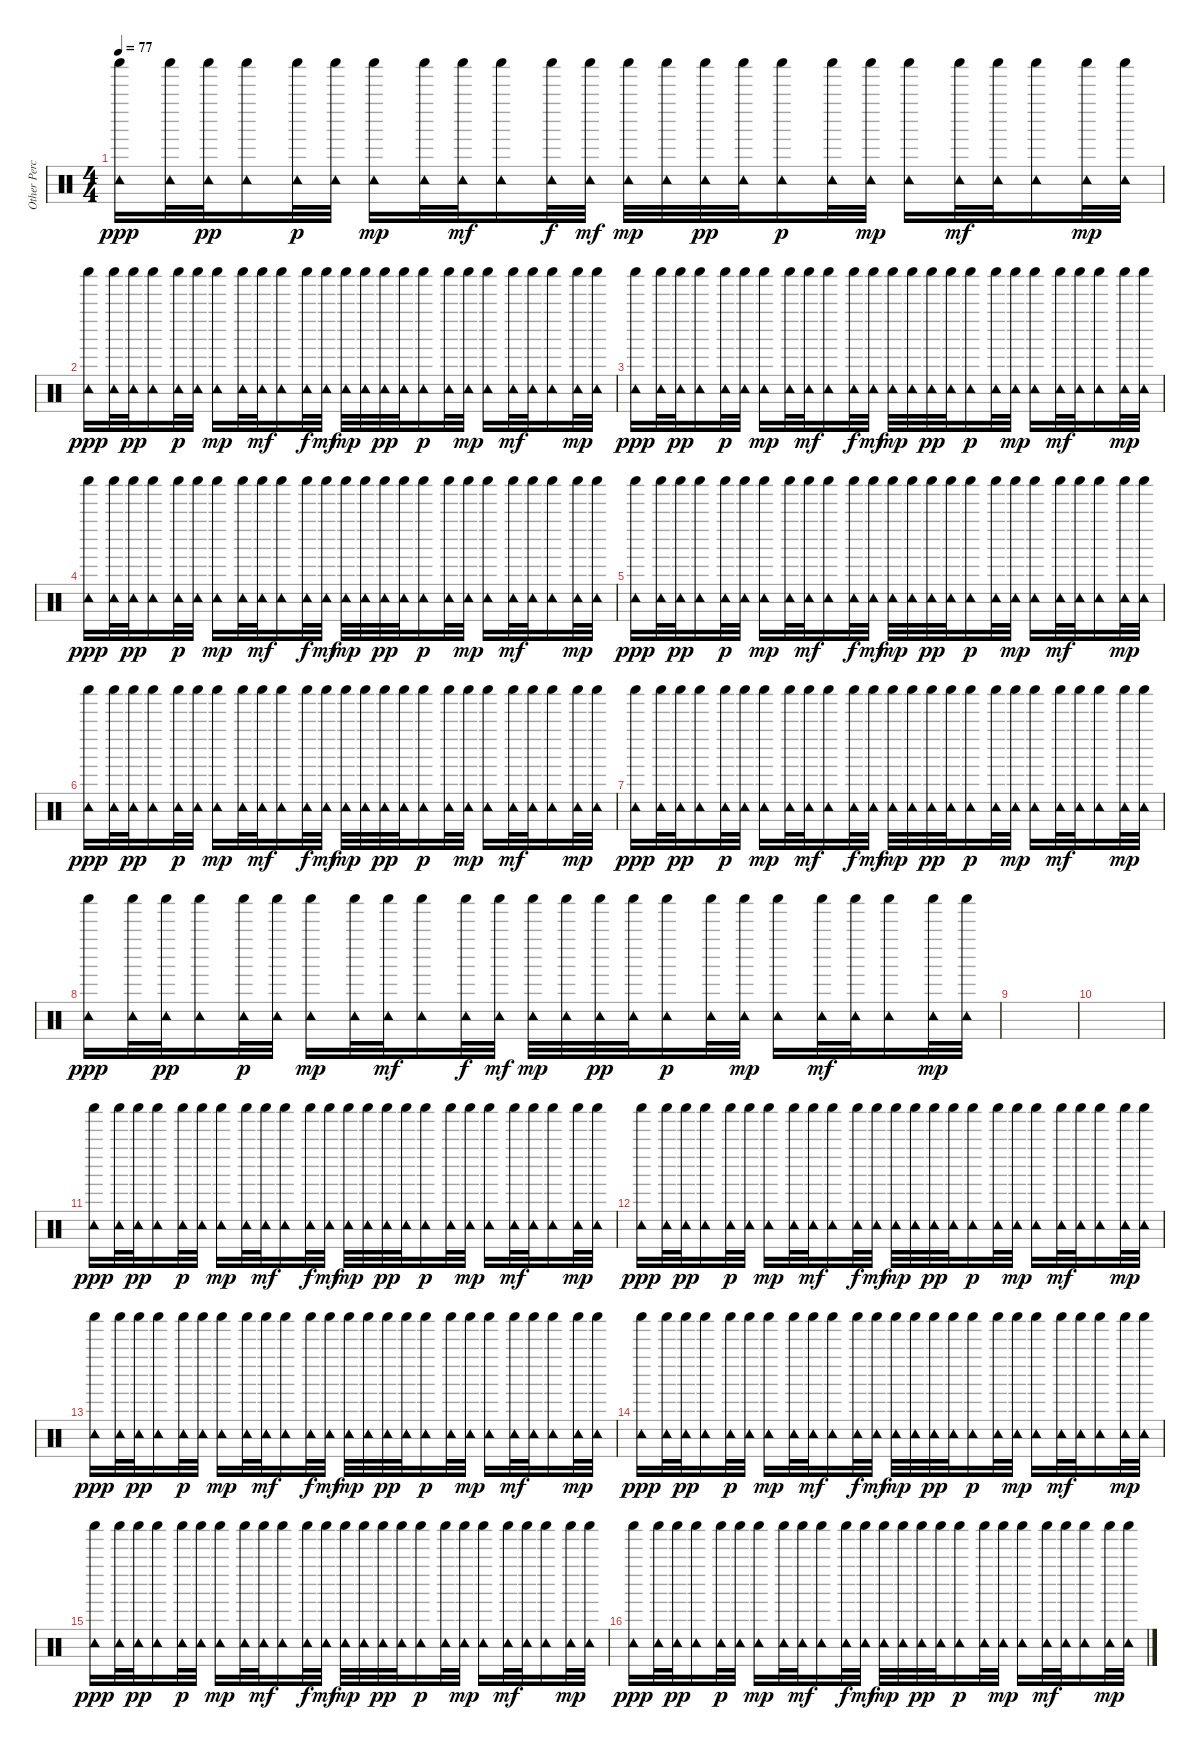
\track ("Other Percussion" "Other Perc") {instrument percussion}
\staff {score}
\articulation defaults
\ts (4 4)
\tempo 77
\clef neutral
\ks c
("Shaker (hit)" "Tambourine (hit)").16{dy ppp} ("Shaker (hit)" "Tambourine (hit)").32 ("Shaker (hit)" "Tambourine (hit)").32{dy pp} ("Shaker (hit)" "Tambourine (hit)").16 ("Shaker (hit)" "Tambourine (hit)").32{dy p} ("Shaker (hit)" "Tambourine (hit)").32 ("Shaker (hit)" "Tambourine (hit)").16{dy mp} ("Shaker (hit)" "Tambourine (hit)").32 ("Shaker (hit)" "Tambourine (hit)").32{dy mf} ("Shaker (hit)" "Tambourine (hit)").16 ("Shaker (hit)" "Tambourine (hit)").32{dy f} ("Shaker (hit)" "Tambourine (hit)").32{dy mf} ("Shaker (hit)" "Tambourine (hit)").32{dy mp} ("Shaker (hit)" "Tambourine (hit)").32 ("Shaker (hit)" "Tambourine (hit)").32{dy pp} ("Shaker (hit)" "Tambourine (hit)").32 ("Shaker (hit)" "Tambourine (hit)").16{dy p} ("Shaker (hit)" "Tambourine (hit)").32 ("Shaker (hit)" "Tambourine (hit)").32{dy mp} ("Shaker (hit)" "Tambourine (hit)").16 ("Shaker (hit)" "Tambourine (hit)").32{dy mf} ("Shaker (hit)" "Tambourine (hit)").32 ("Shaker (hit)" "Tambourine (hit)").16 ("Shaker (hit)" "Tambourine (hit)").32{dy mp} ("Shaker (hit)" "Tambourine (hit)").32 |
("Shaker (hit)" "Tambourine (hit)").16{dy ppp} ("Shaker (hit)" "Tambourine (hit)").32 ("Shaker (hit)" "Tambourine (hit)").32{dy pp} ("Shaker (hit)" "Tambourine (hit)").16 ("Shaker (hit)" "Tambourine (hit)").32{dy p} ("Shaker (hit)" "Tambourine (hit)").32 ("Shaker (hit)" "Tambourine (hit)").16{dy mp} ("Shaker (hit)" "Tambourine (hit)").32 ("Shaker (hit)" "Tambourine (hit)").32{dy mf} ("Shaker (hit)" "Tambourine (hit)").16 ("Shaker (hit)" "Tambourine (hit)").32{dy f} ("Shaker (hit)" "Tambourine (hit)").32{dy mf} ("Shaker (hit)" "Tambourine (hit)").32{dy mp} ("Shaker (hit)" "Tambourine (hit)").32 ("Shaker (hit)" "Tambourine (hit)").32{dy pp} ("Shaker (hit)" "Tambourine (hit)").32 ("Shaker (hit)" "Tambourine (hit)").16{dy p} ("Shaker (hit)" "Tambourine (hit)").32 ("Shaker (hit)" "Tambourine (hit)").32{dy mp} ("Shaker (hit)" "Tambourine (hit)").16 ("Shaker (hit)" "Tambourine (hit)").32{dy mf} ("Shaker (hit)" "Tambourine (hit)").32 ("Shaker (hit)" "Tambourine (hit)").16 ("Shaker (hit)" "Tambourine (hit)").32{dy mp} ("Shaker (hit)" "Tambourine (hit)").32 |
("Shaker (hit)" "Tambourine (hit)").16{dy ppp} ("Shaker (hit)" "Tambourine (hit)").32 ("Shaker (hit)" "Tambourine (hit)").32{dy pp} ("Shaker (hit)" "Tambourine (hit)").16 ("Shaker (hit)" "Tambourine (hit)").32{dy p} ("Shaker (hit)" "Tambourine (hit)").32 ("Shaker (hit)" "Tambourine (hit)").16{dy mp} ("Shaker (hit)" "Tambourine (hit)").32 ("Shaker (hit)" "Tambourine (hit)").32{dy mf} ("Shaker (hit)" "Tambourine (hit)").16 ("Shaker (hit)" "Tambourine (hit)").32{dy f} ("Shaker (hit)" "Tambourine (hit)").32{dy mf} ("Shaker (hit)" "Tambourine (hit)").32{dy mp} ("Shaker (hit)" "Tambourine (hit)").32 ("Shaker (hit)" "Tambourine (hit)").32{dy pp} ("Shaker (hit)" "Tambourine (hit)").32 ("Shaker (hit)" "Tambourine (hit)").16{dy p} ("Shaker (hit)" "Tambourine (hit)").32 ("Shaker (hit)" "Tambourine (hit)").32{dy mp} ("Shaker (hit)" "Tambourine (hit)").16 ("Shaker (hit)" "Tambourine (hit)").32{dy mf} ("Shaker (hit)" "Tambourine (hit)").32 ("Shaker (hit)" "Tambourine (hit)").16 ("Shaker (hit)" "Tambourine (hit)").32{dy mp} ("Shaker (hit)" "Tambourine (hit)").32 |
("Shaker (hit)" "Tambourine (hit)").16{dy ppp} ("Shaker (hit)" "Tambourine (hit)").32 ("Shaker (hit)" "Tambourine (hit)").32{dy pp} ("Shaker (hit)" "Tambourine (hit)").16 ("Shaker (hit)" "Tambourine (hit)").32{dy p} ("Shaker (hit)" "Tambourine (hit)").32 ("Shaker (hit)" "Tambourine (hit)").16{dy mp} ("Shaker (hit)" "Tambourine (hit)").32 ("Shaker (hit)" "Tambourine (hit)").32{dy mf} ("Shaker (hit)" "Tambourine (hit)").16 ("Shaker (hit)" "Tambourine (hit)").32{dy f} ("Shaker (hit)" "Tambourine (hit)").32{dy mf} ("Shaker (hit)" "Tambourine (hit)").32{dy mp} ("Shaker (hit)" "Tambourine (hit)").32 ("Shaker (hit)" "Tambourine (hit)").32{dy pp} ("Shaker (hit)" "Tambourine (hit)").32 ("Shaker (hit)" "Tambourine (hit)").16{dy p} ("Shaker (hit)" "Tambourine (hit)").32 ("Shaker (hit)" "Tambourine (hit)").32{dy mp} ("Shaker (hit)" "Tambourine (hit)").16 ("Shaker (hit)" "Tambourine (hit)").32{dy mf} ("Shaker (hit)" "Tambourine (hit)").32 ("Shaker (hit)" "Tambourine (hit)").16 ("Shaker (hit)" "Tambourine (hit)").32{dy mp} ("Shaker (hit)" "Tambourine (hit)").32 |
("Shaker (hit)" "Tambourine (hit)").16{dy ppp} ("Shaker (hit)" "Tambourine (hit)").32 ("Shaker (hit)" "Tambourine (hit)").32{dy pp} ("Shaker (hit)" "Tambourine (hit)").16 ("Shaker (hit)" "Tambourine (hit)").32{dy p} ("Shaker (hit)" "Tambourine (hit)").32 ("Shaker (hit)" "Tambourine (hit)").16{dy mp} ("Shaker (hit)" "Tambourine (hit)").32 ("Shaker (hit)" "Tambourine (hit)").32{dy mf} ("Shaker (hit)" "Tambourine (hit)").16 ("Shaker (hit)" "Tambourine (hit)").32{dy f} ("Shaker (hit)" "Tambourine (hit)").32{dy mf} ("Shaker (hit)" "Tambourine (hit)").32{dy mp} ("Shaker (hit)" "Tambourine (hit)").32 ("Shaker (hit)" "Tambourine (hit)").32{dy pp} ("Shaker (hit)" "Tambourine (hit)").32 ("Shaker (hit)" "Tambourine (hit)").16{dy p} ("Shaker (hit)" "Tambourine (hit)").32 ("Shaker (hit)" "Tambourine (hit)").32{dy mp} ("Shaker (hit)" "Tambourine (hit)").16 ("Shaker (hit)" "Tambourine (hit)").32{dy mf} ("Shaker (hit)" "Tambourine (hit)").32 ("Shaker (hit)" "Tambourine (hit)").16 ("Shaker (hit)" "Tambourine (hit)").32{dy mp} ("Shaker (hit)" "Tambourine (hit)").32 |
("Shaker (hit)" "Tambourine (hit)").16{dy ppp} ("Shaker (hit)" "Tambourine (hit)").32 ("Shaker (hit)" "Tambourine (hit)").32{dy pp} ("Shaker (hit)" "Tambourine (hit)").16 ("Shaker (hit)" "Tambourine (hit)").32{dy p} ("Shaker (hit)" "Tambourine (hit)").32 ("Shaker (hit)" "Tambourine (hit)").16{dy mp} ("Shaker (hit)" "Tambourine (hit)").32 ("Shaker (hit)" "Tambourine (hit)").32{dy mf} ("Shaker (hit)" "Tambourine (hit)").16 ("Shaker (hit)" "Tambourine (hit)").32{dy f} ("Shaker (hit)" "Tambourine (hit)").32{dy mf} ("Shaker (hit)" "Tambourine (hit)").32{dy mp} ("Shaker (hit)" "Tambourine (hit)").32 ("Shaker (hit)" "Tambourine (hit)").32{dy pp} ("Shaker (hit)" "Tambourine (hit)").32 ("Shaker (hit)" "Tambourine (hit)").16{dy p} ("Shaker (hit)" "Tambourine (hit)").32 ("Shaker (hit)" "Tambourine (hit)").32{dy mp} ("Shaker (hit)" "Tambourine (hit)").16 ("Shaker (hit)" "Tambourine (hit)").32{dy mf} ("Shaker (hit)" "Tambourine (hit)").32 ("Shaker (hit)" "Tambourine (hit)").16 ("Shaker (hit)" "Tambourine (hit)").32{dy mp} ("Shaker (hit)" "Tambourine (hit)").32 |
("Shaker (hit)" "Tambourine (hit)").16{dy ppp} ("Shaker (hit)" "Tambourine (hit)").32 ("Shaker (hit)" "Tambourine (hit)").32{dy pp} ("Shaker (hit)" "Tambourine (hit)").16 ("Shaker (hit)" "Tambourine (hit)").32{dy p} ("Shaker (hit)" "Tambourine (hit)").32 ("Shaker (hit)" "Tambourine (hit)").16{dy mp} ("Shaker (hit)" "Tambourine (hit)").32 ("Shaker (hit)" "Tambourine (hit)").32{dy mf} ("Shaker (hit)" "Tambourine (hit)").16 ("Shaker (hit)" "Tambourine (hit)").32{dy f} ("Shaker (hit)" "Tambourine (hit)").32{dy mf} ("Shaker (hit)" "Tambourine (hit)").32{dy mp} ("Shaker (hit)" "Tambourine (hit)").32 ("Shaker (hit)" "Tambourine (hit)").32{dy pp} ("Shaker (hit)" "Tambourine (hit)").32 ("Shaker (hit)" "Tambourine (hit)").16{dy p} ("Shaker (hit)" "Tambourine (hit)").32 ("Shaker (hit)" "Tambourine (hit)").32{dy mp} ("Shaker (hit)" "Tambourine (hit)").16 ("Shaker (hit)" "Tambourine (hit)").32{dy mf} ("Shaker (hit)" "Tambourine (hit)").32 ("Shaker (hit)" "Tambourine (hit)").16 ("Shaker (hit)" "Tambourine (hit)").32{dy mp} ("Shaker (hit)" "Tambourine (hit)").32 |
("Shaker (hit)" "Tambourine (hit)").16{dy ppp} ("Shaker (hit)" "Tambourine (hit)").32 ("Shaker (hit)" "Tambourine (hit)").32{dy pp} ("Shaker (hit)" "Tambourine (hit)").16 ("Shaker (hit)" "Tambourine (hit)").32{dy p} ("Shaker (hit)" "Tambourine (hit)").32 ("Shaker (hit)" "Tambourine (hit)").16{dy mp} ("Shaker (hit)" "Tambourine (hit)").32 ("Shaker (hit)" "Tambourine (hit)").32{dy mf} ("Shaker (hit)" "Tambourine (hit)").16 ("Shaker (hit)" "Tambourine (hit)").32{dy f} ("Shaker (hit)" "Tambourine (hit)").32{dy mf} ("Shaker (hit)" "Tambourine (hit)").32{dy mp} ("Shaker (hit)" "Tambourine (hit)").32 ("Shaker (hit)" "Tambourine (hit)").32{dy pp} ("Shaker (hit)" "Tambourine (hit)").32 ("Shaker (hit)" "Tambourine (hit)").16{dy p} ("Shaker (hit)" "Tambourine (hit)").32 ("Shaker (hit)" "Tambourine (hit)").32{dy mp} ("Shaker (hit)" "Tambourine (hit)").16 ("Shaker (hit)" "Tambourine (hit)").32{dy mf} ("Shaker (hit)" "Tambourine (hit)").32 ("Shaker (hit)" "Tambourine (hit)").16 ("Shaker (hit)" "Tambourine (hit)").32{dy mp} ("Shaker (hit)" "Tambourine (hit)").32 |
|
|
("Shaker (hit)" "Tambourine (hit)").16{dy ppp} ("Shaker (hit)" "Tambourine (hit)").32 ("Shaker (hit)" "Tambourine (hit)").32{dy pp} ("Shaker (hit)" "Tambourine (hit)").16 ("Shaker (hit)" "Tambourine (hit)").32{dy p} ("Shaker (hit)" "Tambourine (hit)").32 ("Shaker (hit)" "Tambourine (hit)").16{dy mp} ("Shaker (hit)" "Tambourine (hit)").32 ("Shaker (hit)" "Tambourine (hit)").32{dy mf} ("Shaker (hit)" "Tambourine (hit)").16 ("Shaker (hit)" "Tambourine (hit)").32{dy f} ("Shaker (hit)" "Tambourine (hit)").32{dy mf} ("Shaker (hit)" "Tambourine (hit)").32{dy mp} ("Shaker (hit)" "Tambourine (hit)").32 ("Shaker (hit)" "Tambourine (hit)").32{dy pp} ("Shaker (hit)" "Tambourine (hit)").32 ("Shaker (hit)" "Tambourine (hit)").16{dy p} ("Shaker (hit)" "Tambourine (hit)").32 ("Shaker (hit)" "Tambourine (hit)").32{dy mp} ("Shaker (hit)" "Tambourine (hit)").16 ("Shaker (hit)" "Tambourine (hit)").32{dy mf} ("Shaker (hit)" "Tambourine (hit)").32 ("Shaker (hit)" "Tambourine (hit)").16 ("Shaker (hit)" "Tambourine (hit)").32{dy mp} ("Shaker (hit)" "Tambourine (hit)").32 |
("Shaker (hit)" "Tambourine (hit)").16{dy ppp} ("Shaker (hit)" "Tambourine (hit)").32 ("Shaker (hit)" "Tambourine (hit)").32{dy pp} ("Shaker (hit)" "Tambourine (hit)").16 ("Shaker (hit)" "Tambourine (hit)").32{dy p} ("Shaker (hit)" "Tambourine (hit)").32 ("Shaker (hit)" "Tambourine (hit)").16{dy mp} ("Shaker (hit)" "Tambourine (hit)").32 ("Shaker (hit)" "Tambourine (hit)").32{dy mf} ("Shaker (hit)" "Tambourine (hit)").16 ("Shaker (hit)" "Tambourine (hit)").32{dy f} ("Shaker (hit)" "Tambourine (hit)").32{dy mf} ("Shaker (hit)" "Tambourine (hit)").32{dy mp} ("Shaker (hit)" "Tambourine (hit)").32 ("Shaker (hit)" "Tambourine (hit)").32{dy pp} ("Shaker (hit)" "Tambourine (hit)").32 ("Shaker (hit)" "Tambourine (hit)").16{dy p} ("Shaker (hit)" "Tambourine (hit)").32 ("Shaker (hit)" "Tambourine (hit)").32{dy mp} ("Shaker (hit)" "Tambourine (hit)").16 ("Shaker (hit)" "Tambourine (hit)").32{dy mf} ("Shaker (hit)" "Tambourine (hit)").32 ("Shaker (hit)" "Tambourine (hit)").16 ("Shaker (hit)" "Tambourine (hit)").32{dy mp} ("Shaker (hit)" "Tambourine (hit)").32 |
("Shaker (hit)" "Tambourine (hit)").16{dy ppp} ("Shaker (hit)" "Tambourine (hit)").32 ("Shaker (hit)" "Tambourine (hit)").32{dy pp} ("Shaker (hit)" "Tambourine (hit)").16 ("Shaker (hit)" "Tambourine (hit)").32{dy p} ("Shaker (hit)" "Tambourine (hit)").32 ("Shaker (hit)" "Tambourine (hit)").16{dy mp} ("Shaker (hit)" "Tambourine (hit)").32 ("Shaker (hit)" "Tambourine (hit)").32{dy mf} ("Shaker (hit)" "Tambourine (hit)").16 ("Shaker (hit)" "Tambourine (hit)").32{dy f} ("Shaker (hit)" "Tambourine (hit)").32{dy mf} ("Shaker (hit)" "Tambourine (hit)").32{dy mp} ("Shaker (hit)" "Tambourine (hit)").32 ("Shaker (hit)" "Tambourine (hit)").32{dy pp} ("Shaker (hit)" "Tambourine (hit)").32 ("Shaker (hit)" "Tambourine (hit)").16{dy p} ("Shaker (hit)" "Tambourine (hit)").32 ("Shaker (hit)" "Tambourine (hit)").32{dy mp} ("Shaker (hit)" "Tambourine (hit)").16 ("Shaker (hit)" "Tambourine (hit)").32{dy mf} ("Shaker (hit)" "Tambourine (hit)").32 ("Shaker (hit)" "Tambourine (hit)").16 ("Shaker (hit)" "Tambourine (hit)").32{dy mp} ("Shaker (hit)" "Tambourine (hit)").32 |
("Shaker (hit)" "Tambourine (hit)").16{dy ppp} ("Shaker (hit)" "Tambourine (hit)").32 ("Shaker (hit)" "Tambourine (hit)").32{dy pp} ("Shaker (hit)" "Tambourine (hit)").16 ("Shaker (hit)" "Tambourine (hit)").32{dy p} ("Shaker (hit)" "Tambourine (hit)").32 ("Shaker (hit)" "Tambourine (hit)").16{dy mp} ("Shaker (hit)" "Tambourine (hit)").32 ("Shaker (hit)" "Tambourine (hit)").32{dy mf} ("Shaker (hit)" "Tambourine (hit)").16 ("Shaker (hit)" "Tambourine (hit)").32{dy f} ("Shaker (hit)" "Tambourine (hit)").32{dy mf} ("Shaker (hit)" "Tambourine (hit)").32{dy mp} ("Shaker (hit)" "Tambourine (hit)").32 ("Shaker (hit)" "Tambourine (hit)").32{dy pp} ("Shaker (hit)" "Tambourine (hit)").32 ("Shaker (hit)" "Tambourine (hit)").16{dy p} ("Shaker (hit)" "Tambourine (hit)").32 ("Shaker (hit)" "Tambourine (hit)").32{dy mp} ("Shaker (hit)" "Tambourine (hit)").16 ("Shaker (hit)" "Tambourine (hit)").32{dy mf} ("Shaker (hit)" "Tambourine (hit)").32 ("Shaker (hit)" "Tambourine (hit)").16 ("Shaker (hit)" "Tambourine (hit)").32{dy mp} ("Shaker (hit)" "Tambourine (hit)").32 |
("Shaker (hit)" "Tambourine (hit)").16{dy ppp} ("Shaker (hit)" "Tambourine (hit)").32 ("Shaker (hit)" "Tambourine (hit)").32{dy pp} ("Shaker (hit)" "Tambourine (hit)").16 ("Shaker (hit)" "Tambourine (hit)").32{dy p} ("Shaker (hit)" "Tambourine (hit)").32 ("Shaker (hit)" "Tambourine (hit)").16{dy mp} ("Shaker (hit)" "Tambourine (hit)").32 ("Shaker (hit)" "Tambourine (hit)").32{dy mf} ("Shaker (hit)" "Tambourine (hit)").16 ("Shaker (hit)" "Tambourine (hit)").32{dy f} ("Shaker (hit)" "Tambourine (hit)").32{dy mf} ("Shaker (hit)" "Tambourine (hit)").32{dy mp} ("Shaker (hit)" "Tambourine (hit)").32 ("Shaker (hit)" "Tambourine (hit)").32{dy pp} ("Shaker (hit)" "Tambourine (hit)").32 ("Shaker (hit)" "Tambourine (hit)").16{dy p} ("Shaker (hit)" "Tambourine (hit)").32 ("Shaker (hit)" "Tambourine (hit)").32{dy mp} ("Shaker (hit)" "Tambourine (hit)").16 ("Shaker (hit)" "Tambourine (hit)").32{dy mf} ("Shaker (hit)" "Tambourine (hit)").32 ("Shaker (hit)" "Tambourine (hit)").16 ("Shaker (hit)" "Tambourine (hit)").32{dy mp} ("Shaker (hit)" "Tambourine (hit)").32 |
("Shaker (hit)" "Tambourine (hit)").16{dy ppp} ("Shaker (hit)" "Tambourine (hit)").32 ("Shaker (hit)" "Tambourine (hit)").32{dy pp} ("Shaker (hit)" "Tambourine (hit)").16 ("Shaker (hit)" "Tambourine (hit)").32{dy p} ("Shaker (hit)" "Tambourine (hit)").32 ("Shaker (hit)" "Tambourine (hit)").16{dy mp} ("Shaker (hit)" "Tambourine (hit)").32 ("Shaker (hit)" "Tambourine (hit)").32{dy mf} ("Shaker (hit)" "Tambourine (hit)").16 ("Shaker (hit)" "Tambourine (hit)").32{dy f} ("Shaker (hit)" "Tambourine (hit)").32{dy mf} ("Shaker (hit)" "Tambourine (hit)").32{dy mp} ("Shaker (hit)" "Tambourine (hit)").32 ("Shaker (hit)" "Tambourine (hit)").32{dy pp} ("Shaker (hit)" "Tambourine (hit)").32 ("Shaker (hit)" "Tambourine (hit)").16{dy p} ("Shaker (hit)" "Tambourine (hit)").32 ("Shaker (hit)" "Tambourine (hit)").32{dy mp} ("Shaker (hit)" "Tambourine (hit)").16 ("Shaker (hit)" "Tambourine (hit)").32{dy mf} ("Shaker (hit)" "Tambourine (hit)").32 ("Shaker (hit)" "Tambourine (hit)").16 ("Shaker (hit)" "Tambourine (hit)").32{dy mp} ("Shaker (hit)" "Tambourine (hit)").32
